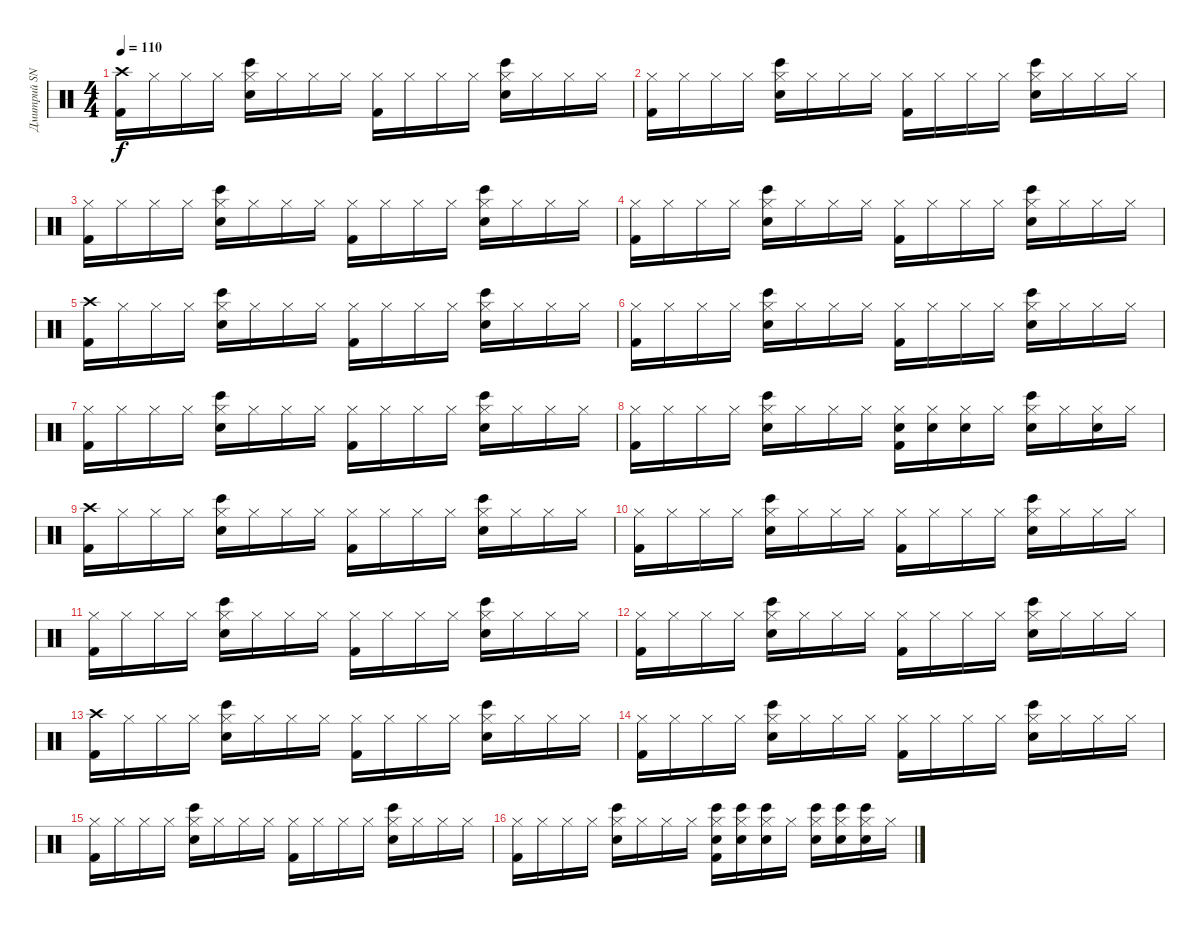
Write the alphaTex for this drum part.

\track ("Дмитрий SNAKE Хакимов" "Дмитрий SN") {instrument percussion}
\staff {score}
\articulation defaults
\ts (4 4)
\tempo 110
\clef neutral
\ks c
("Crash high (hit)" "Kick (hit) 2").16{dy f} "Hi-Hat (closed)".16 "Hi-Hat (closed)".16 "Hi-Hat (closed)".16 ("Hi-Hat (closed)" "Bongo High (hit)" "Snare (hit) 2").16 "Hi-Hat (closed)".16 "Hi-Hat (closed)".16 "Hi-Hat (closed)".16 ("Hi-Hat (closed)" "Kick (hit) 2").16 "Hi-Hat (closed)".16 "Hi-Hat (closed)".16 "Hi-Hat (closed)".16 ("Hi-Hat (closed)" "Bongo High (hit)" "Snare (hit) 2").16 "Hi-Hat (closed)".16 "Hi-Hat (closed)".16 "Hi-Hat (closed)".16 |
("Hi-Hat (closed)" "Kick (hit) 2").16 "Hi-Hat (closed)".16 "Hi-Hat (closed)".16 "Hi-Hat (closed)".16 ("Hi-Hat (closed)" "Bongo High (hit)" "Snare (hit) 2").16 "Hi-Hat (closed)".16 "Hi-Hat (closed)".16 "Hi-Hat (closed)".16 ("Hi-Hat (closed)" "Kick (hit) 2").16 "Hi-Hat (closed)".16 "Hi-Hat (closed)".16 "Hi-Hat (closed)".16 ("Hi-Hat (closed)" "Bongo High (hit)" "Snare (hit) 2").16 "Hi-Hat (closed)".16 "Hi-Hat (closed)".16 "Hi-Hat (closed)".16 |
("Hi-Hat (closed)" "Kick (hit) 2").16 "Hi-Hat (closed)".16 "Hi-Hat (closed)".16 "Hi-Hat (closed)".16 ("Hi-Hat (closed)" "Bongo High (hit)" "Snare (hit) 2").16 "Hi-Hat (closed)".16 "Hi-Hat (closed)".16 "Hi-Hat (closed)".16 ("Hi-Hat (closed)" "Kick (hit) 2").16 "Hi-Hat (closed)".16 "Hi-Hat (closed)".16 "Hi-Hat (closed)".16 ("Hi-Hat (closed)" "Bongo High (hit)" "Snare (hit) 2").16 "Hi-Hat (closed)".16 "Hi-Hat (closed)".16 "Hi-Hat (closed)".16 |
("Hi-Hat (closed)" "Kick (hit) 2").16 "Hi-Hat (closed)".16 "Hi-Hat (closed)".16 "Hi-Hat (closed)".16 ("Hi-Hat (closed)" "Bongo High (hit)" "Snare (hit) 2").16 "Hi-Hat (closed)".16 "Hi-Hat (closed)".16 "Hi-Hat (closed)".16 ("Hi-Hat (closed)" "Kick (hit) 2").16 "Hi-Hat (closed)".16 "Hi-Hat (closed)".16 "Hi-Hat (closed)".16 ("Hi-Hat (closed)" "Bongo High (hit)" "Snare (hit) 2").16 "Hi-Hat (closed)".16 "Hi-Hat (closed)".16 "Hi-Hat (closed)".16 |
("Crash high (hit)" "Kick (hit) 2").16 "Hi-Hat (closed)".16 "Hi-Hat (closed)".16 "Hi-Hat (closed)".16 ("Hi-Hat (closed)" "Bongo High (hit)" "Snare (hit) 2").16 "Hi-Hat (closed)".16 "Hi-Hat (closed)".16 "Hi-Hat (closed)".16 ("Hi-Hat (closed)" "Kick (hit) 2").16 "Hi-Hat (closed)".16 "Hi-Hat (closed)".16 "Hi-Hat (closed)".16 ("Hi-Hat (closed)" "Bongo High (hit)" "Snare (hit) 2").16 "Hi-Hat (closed)".16 "Hi-Hat (closed)".16 "Hi-Hat (closed)".16 |
("Hi-Hat (closed)" "Kick (hit) 2").16 "Hi-Hat (closed)".16 "Hi-Hat (closed)".16 "Hi-Hat (closed)".16 ("Hi-Hat (closed)" "Bongo High (hit)" "Snare (hit) 2").16 "Hi-Hat (closed)".16 "Hi-Hat (closed)".16 "Hi-Hat (closed)".16 ("Hi-Hat (closed)" "Kick (hit) 2").16 "Hi-Hat (closed)".16 "Hi-Hat (closed)".16 "Hi-Hat (closed)".16 ("Hi-Hat (closed)" "Bongo High (hit)" "Snare (hit) 2").16 "Hi-Hat (closed)".16 "Hi-Hat (closed)".16 "Hi-Hat (closed)".16 |
("Hi-Hat (closed)" "Kick (hit) 2").16 "Hi-Hat (closed)".16 "Hi-Hat (closed)".16 "Hi-Hat (closed)".16 ("Hi-Hat (closed)" "Bongo High (hit)" "Snare (hit) 2").16 "Hi-Hat (closed)".16 "Hi-Hat (closed)".16 "Hi-Hat (closed)".16 ("Hi-Hat (closed)" "Kick (hit) 2").16 "Hi-Hat (closed)".16 "Hi-Hat (closed)".16 "Hi-Hat (closed)".16 ("Hi-Hat (closed)" "Bongo High (hit)" "Snare (hit) 2").16 "Hi-Hat (closed)".16 "Hi-Hat (closed)".16 "Hi-Hat (closed)".16 |
("Hi-Hat (closed)" "Kick (hit) 2").16 "Hi-Hat (closed)".16 "Hi-Hat (closed)".16 "Hi-Hat (closed)".16 ("Hi-Hat (closed)" "Bongo High (hit)" "Snare (hit) 2").16 "Hi-Hat (closed)".16 "Hi-Hat (closed)".16 "Hi-Hat (closed)".16 ("Hi-Hat (closed)" "Snare (hit) 2" "Kick (hit) 2").16 ("Hi-Hat (closed)" "Snare (hit) 2").16 ("Hi-Hat (closed)" "Snare (hit) 2").16 "Hi-Hat (closed)".16 ("Hi-Hat (closed)" "Snare (hit) 2" "Bongo High (hit)").16 "Hi-Hat (closed)".16 ("Hi-Hat (closed)" "Snare (hit) 2").16 "Hi-Hat (closed)".16 |
("Crash high (hit)" "Kick (hit) 2").16 "Hi-Hat (closed)".16 "Hi-Hat (closed)".16 "Hi-Hat (closed)".16 ("Hi-Hat (closed)" "Bongo High (hit)" "Snare (hit) 2").16 "Hi-Hat (closed)".16 "Hi-Hat (closed)".16 "Hi-Hat (closed)".16 ("Hi-Hat (closed)" "Kick (hit) 2").16 "Hi-Hat (closed)".16 "Hi-Hat (closed)".16 "Hi-Hat (closed)".16 ("Hi-Hat (closed)" "Bongo High (hit)" "Snare (hit) 2").16 "Hi-Hat (closed)".16 "Hi-Hat (closed)".16 "Hi-Hat (closed)".16 |
("Hi-Hat (closed)" "Kick (hit) 2").16 "Hi-Hat (closed)".16 "Hi-Hat (closed)".16 "Hi-Hat (closed)".16 ("Hi-Hat (closed)" "Bongo High (hit)" "Snare (hit) 2").16 "Hi-Hat (closed)".16 "Hi-Hat (closed)".16 "Hi-Hat (closed)".16 ("Hi-Hat (closed)" "Kick (hit) 2").16 "Hi-Hat (closed)".16 "Hi-Hat (closed)".16 "Hi-Hat (closed)".16 ("Hi-Hat (closed)" "Bongo High (hit)" "Snare (hit) 2").16 "Hi-Hat (closed)".16 "Hi-Hat (closed)".16 "Hi-Hat (closed)".16 |
("Hi-Hat (closed)" "Kick (hit) 2").16 "Hi-Hat (closed)".16 "Hi-Hat (closed)".16 "Hi-Hat (closed)".16 ("Hi-Hat (closed)" "Bongo High (hit)" "Snare (hit) 2").16 "Hi-Hat (closed)".16 "Hi-Hat (closed)".16 "Hi-Hat (closed)".16 ("Hi-Hat (closed)" "Kick (hit) 2").16 "Hi-Hat (closed)".16 "Hi-Hat (closed)".16 "Hi-Hat (closed)".16 ("Hi-Hat (closed)" "Bongo High (hit)" "Snare (hit) 2").16 "Hi-Hat (closed)".16 "Hi-Hat (closed)".16 "Hi-Hat (closed)".16 |
("Hi-Hat (closed)" "Kick (hit) 2").16 "Hi-Hat (closed)".16 "Hi-Hat (closed)".16 "Hi-Hat (closed)".16 ("Hi-Hat (closed)" "Bongo High (hit)" "Snare (hit) 2").16 "Hi-Hat (closed)".16 "Hi-Hat (closed)".16 "Hi-Hat (closed)".16 ("Hi-Hat (closed)" "Kick (hit) 2").16 "Hi-Hat (closed)".16 "Hi-Hat (closed)".16 "Hi-Hat (closed)".16 ("Hi-Hat (closed)" "Bongo High (hit)" "Snare (hit) 2").16 "Hi-Hat (closed)".16 "Hi-Hat (closed)".16 "Hi-Hat (closed)".16 |
("Crash high (hit)" "Kick (hit) 2").16 "Hi-Hat (closed)".16 "Hi-Hat (closed)".16 "Hi-Hat (closed)".16 ("Hi-Hat (closed)" "Bongo High (hit)" "Snare (hit) 2").16 "Hi-Hat (closed)".16 "Hi-Hat (closed)".16 "Hi-Hat (closed)".16 ("Hi-Hat (closed)" "Kick (hit) 2").16 "Hi-Hat (closed)".16 "Hi-Hat (closed)".16 "Hi-Hat (closed)".16 ("Hi-Hat (closed)" "Bongo High (hit)" "Snare (hit) 2").16 "Hi-Hat (closed)".16 "Hi-Hat (closed)".16 "Hi-Hat (closed)".16 |
("Hi-Hat (closed)" "Kick (hit) 2").16 "Hi-Hat (closed)".16 "Hi-Hat (closed)".16 "Hi-Hat (closed)".16 ("Hi-Hat (closed)" "Bongo High (hit)" "Snare (hit) 2").16 "Hi-Hat (closed)".16 "Hi-Hat (closed)".16 "Hi-Hat (closed)".16 ("Hi-Hat (closed)" "Kick (hit) 2").16 "Hi-Hat (closed)".16 "Hi-Hat (closed)".16 "Hi-Hat (closed)".16 ("Hi-Hat (closed)" "Bongo High (hit)" "Snare (hit) 2").16 "Hi-Hat (closed)".16 "Hi-Hat (closed)".16 "Hi-Hat (closed)".16 |
("Hi-Hat (closed)" "Kick (hit) 2").16 "Hi-Hat (closed)".16 "Hi-Hat (closed)".16 "Hi-Hat (closed)".16 ("Hi-Hat (closed)" "Bongo High (hit)" "Snare (hit) 2").16 "Hi-Hat (closed)".16 "Hi-Hat (closed)".16 "Hi-Hat (closed)".16 ("Hi-Hat (closed)" "Kick (hit) 2").16 "Hi-Hat (closed)".16 "Hi-Hat (closed)".16 "Hi-Hat (closed)".16 ("Hi-Hat (closed)" "Bongo High (hit)" "Snare (hit) 2").16 "Hi-Hat (closed)".16 "Hi-Hat (closed)".16 "Hi-Hat (closed)".16 |
("Hi-Hat (closed)" "Kick (hit) 2").16 "Hi-Hat (closed)".16 "Hi-Hat (closed)".16 "Hi-Hat (closed)".16 ("Hi-Hat (closed)" "Bongo High (hit)" "Snare (hit) 2").16 "Hi-Hat (closed)".16 "Hi-Hat (closed)".16 "Hi-Hat (closed)".16 ("Hi-Hat (closed)" "Bongo High (hit)" "Snare (hit) 2" "Kick (hit) 2").16 ("Hi-Hat (closed)" "Bongo High (hit)" "Snare (hit) 2").16 ("Hi-Hat (closed)" "Bongo High (hit)" "Snare (hit) 2").16 "Hi-Hat (closed)".16 ("Hi-Hat (closed)" "Bongo High (hit)" "Snare (hit) 2").16 ("Hi-Hat (closed)" "Bongo High (hit)" "Snare (hit) 2").16 ("Hi-Hat (closed)" "Bongo High (hit)" "Snare (hit) 2").16 "Hi-Hat (closed)".16
